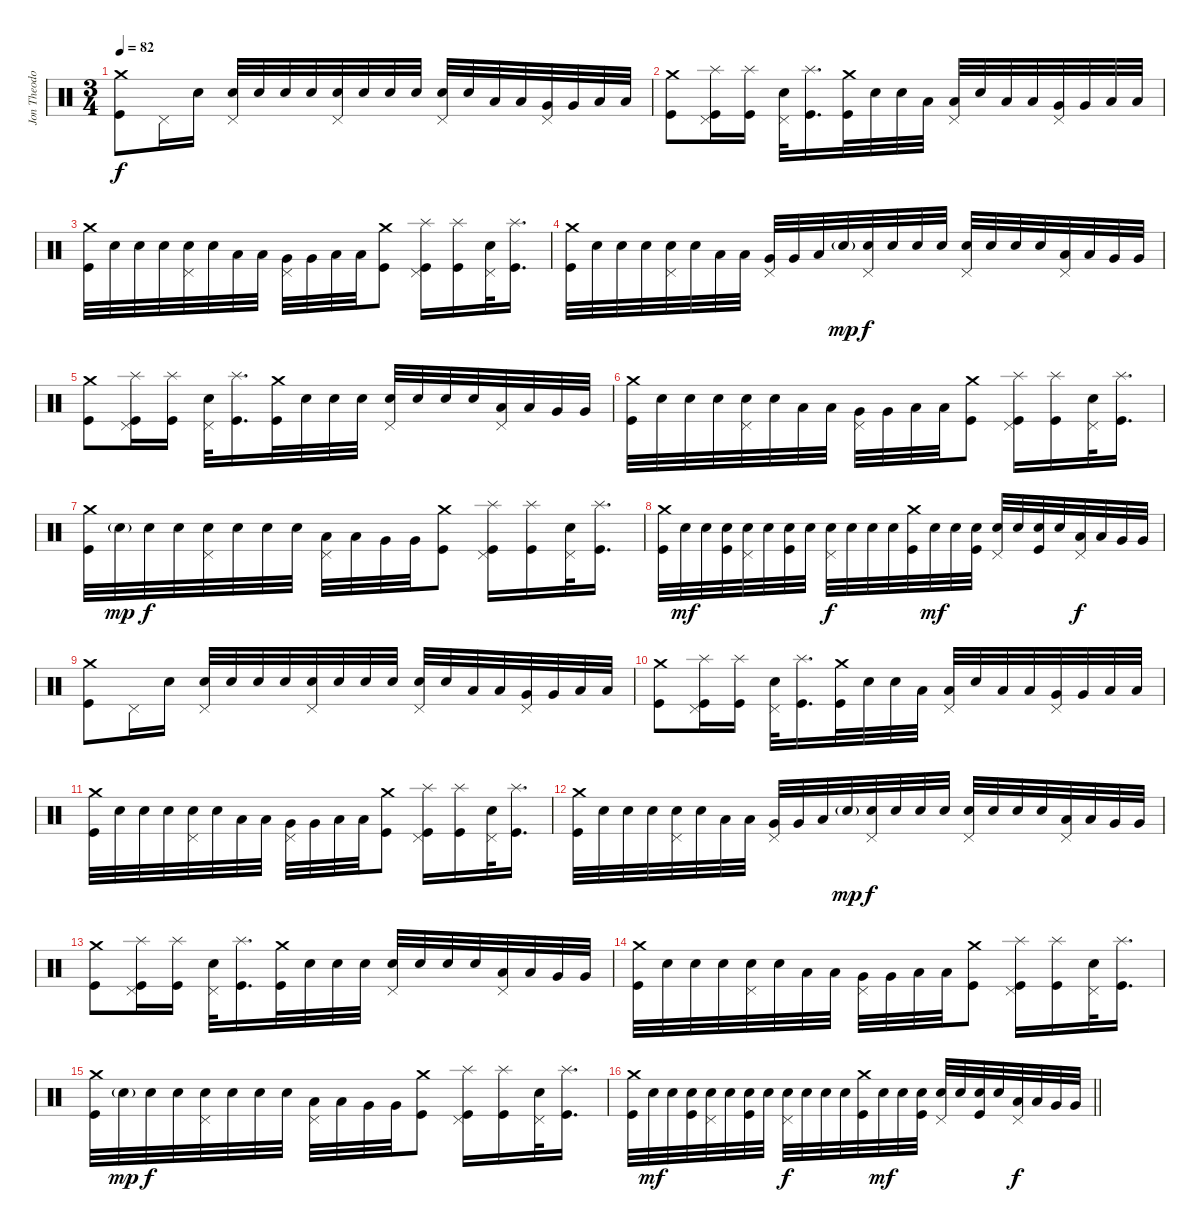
\track ("Jon Theodore" "Jon Theodo") {instrument percussion}
\staff {score}
\articulation defaults
\ts (3 4)
\tempo 82
\clef neutral
\ks c
("Crash medium (hit)" "Kick (hit)").8{dy f} "Pedal Hi-Hat (hit)".16 "Snare (hit) 2".16 ("Pedal Hi-Hat (hit)" "Snare (hit) 2").32 "Snare (hit) 2".32 "Snare (hit) 2".32 "Snare (hit) 2".32 ("Pedal Hi-Hat (hit)" "Snare (hit) 2").32 "Snare (hit) 2".32 "Snare (hit) 2".32 "Snare (hit) 2".32 ("Pedal Hi-Hat (hit)" "Snare (hit) 2").32 "Snare (hit) 2".32 "Low Tom (hit)".32 "Low Tom (hit)".32 ("Pedal Hi-Hat (hit)" "Very Low Tom (hit)").32 "Very Low Tom (hit)".32 "Low Floor Tom (hit)".32 "Low Floor Tom (hit)".32 |
("Crash medium (hit)" "Kick (hit)").8 ("Splash (hit)" "Pedal Hi-Hat (hit)" "Kick (hit)").16 ("Splash (hit)" "Kick (hit)").16 ("Pedal Hi-Hat (hit)" "Snare (hit) 2").32 ("Splash (hit)" "Kick (hit)").16{d} ("Crash medium (hit)" "Kick (hit)").32 "Snare (hit) 2".32 "Snare (hit) 2".32 "Low Tom (hit)".32 ("Pedal Hi-Hat (hit)" "Low Tom (hit)").32 "Snare (hit) 2".32 "Low Tom (hit)".32 "Low Tom (hit)".32 ("Pedal Hi-Hat (hit)" "Very Low Tom (hit)").32 "Very Low Tom (hit)".32 "Low Floor Tom (hit)".32 "Low Floor Tom (hit)".32 |
("Crash medium (hit)" "Kick (hit)").32 "Snare (hit) 2".32 "Snare (hit) 2".32 "Snare (hit) 2".32 ("Pedal Hi-Hat (hit)" "Snare (hit) 2").32 "Snare (hit) 2".32 "Low Tom (hit)".32 "Low Tom (hit)".32 ("Pedal Hi-Hat (hit)" "Very Low Tom (hit)").32 "Very Low Tom (hit)".32 "Low Floor Tom (hit)".32 "Low Floor Tom (hit)".32 ("Crash medium (hit)" "Kick (hit)").8 ("Splash (hit)" "Pedal Hi-Hat (hit)" "Kick (hit)").16 ("Splash (hit)" "Kick (hit)").16 ("Pedal Hi-Hat (hit)" "Snare (hit) 2").32 ("Splash (hit)" "Kick (hit)").16{d} |
("Crash medium (hit)" "Kick (hit)").32 "Snare (hit) 2".32 "Snare (hit) 2".32 "Snare (hit) 2".32 ("Pedal Hi-Hat (hit)" "Snare (hit) 2").32 "Snare (hit) 2".32 "Low Tom (hit)".32 "Low Tom (hit)".32 ("Pedal Hi-Hat (hit)" "Very Low Tom (hit)").32 "Very Low Tom (hit)".32 "Low Floor Tom (hit)".32 "Snare (hit) 2"{g}.32{dy mp} ("Pedal Hi-Hat (hit)" "Snare (hit) 2").32{dy f} "Snare (hit) 2".32 "Snare (hit) 2".32 "Snare (hit) 2".32 ("Pedal Hi-Hat (hit)" "Snare (hit) 2").32 "Snare (hit) 2".32 "Snare (hit) 2".32 "Snare (hit) 2".32 ("Pedal Hi-Hat (hit)" "Low Tom (hit)").32 "Low Tom (hit)".32 "Very Low Tom (hit)".32 "Very Low Tom (hit)".32 |
("Crash medium (hit)" "Kick (hit)").8 ("Splash (hit)" "Pedal Hi-Hat (hit)" "Kick (hit)").16 ("Splash (hit)" "Kick (hit)").16 ("Pedal Hi-Hat (hit)" "Snare (hit) 2").32 ("Splash (hit)" "Kick (hit)").16{d} ("Crash medium (hit)" "Kick (hit)").32 "Snare (hit) 2".32 "Snare (hit) 2".32 "Snare (hit) 2".32 ("Pedal Hi-Hat (hit)" "Snare (hit) 2").32 "Snare (hit) 2".32 "Snare (hit) 2".32 "Snare (hit) 2".32 ("Pedal Hi-Hat (hit)" "Low Tom (hit)").32 "Low Tom (hit)".32 "Very Low Tom (hit)".32 "Very Low Tom (hit)".32 |
("Crash medium (hit)" "Kick (hit)").32 "Snare (hit) 2".32 "Snare (hit) 2".32 "Snare (hit) 2".32 ("Pedal Hi-Hat (hit)" "Snare (hit) 2").32 "Snare (hit) 2".32 "Low Tom (hit)".32 "Low Tom (hit)".32 ("Pedal Hi-Hat (hit)" "Very Low Tom (hit)").32 "Very Low Tom (hit)".32 "Low Floor Tom (hit)".32 "Low Floor Tom (hit)".32 ("Crash medium (hit)" "Kick (hit)").8 ("Splash (hit)" "Pedal Hi-Hat (hit)" "Kick (hit)").16 ("Splash (hit)" "Kick (hit)").16 ("Pedal Hi-Hat (hit)" "Snare (hit) 2").32 ("Splash (hit)" "Kick (hit)").16{d} |
("Crash medium (hit)" "Kick (hit)").32 "Snare (hit) 2"{g}.32{dy mp} "Snare (hit) 2".32{dy f} "Snare (hit) 2".32 ("Pedal Hi-Hat (hit)" "Snare (hit) 2").32 "Snare (hit) 2".32 "Snare (hit) 2".32 "Snare (hit) 2".32 ("Pedal Hi-Hat (hit)" "Low Tom (hit)").32 "Low Tom (hit)".32 "Very Low Tom (hit)".32 "Very Low Tom (hit)".32 ("Crash medium (hit)" "Kick (hit)").8 ("Splash (hit)" "Pedal Hi-Hat (hit)" "Kick (hit)").16 ("Splash (hit)" "Kick (hit)").16 ("Pedal Hi-Hat (hit)" "Snare (hit) 2").32 ("Splash (hit)" "Kick (hit)").16{d} |
("Crash medium (hit)" "Kick (hit)").32 "Snare (hit) 2".32{dy mf} "Snare (hit) 2".32 ("Snare (hit) 2" "Kick (hit)").32 ("Pedal Hi-Hat (hit)" "Snare (hit) 2").32 "Snare (hit) 2".32 ("Snare (hit) 2" "Kick (hit)").32 "Snare (hit) 2".32 ("Pedal Hi-Hat (hit)" "Snare (hit) 2").32{dy f} "Snare (hit) 2".32 "Snare (hit) 2".32 "Snare (hit) 2".32 ("Crash medium (hit)" "Kick (hit)").32 "Snare (hit) 2".32{dy mf} "Snare (hit) 2".32 ("Snare (hit) 2" "Kick (hit)").32 ("Pedal Hi-Hat (hit)" "Snare (hit) 2").32 "Snare (hit) 2".32 ("Snare (hit) 2" "Kick (hit)").32 "Snare (hit) 2".32 ("Pedal Hi-Hat (hit)" "Low Tom (hit)").32{dy f} "Low Tom (hit)".32 "Very Low Tom (hit)".32 "Very Low Tom (hit)".32 |
("Crash medium (hit)" "Kick (hit)").8 "Pedal Hi-Hat (hit)".16 "Snare (hit) 2".16 ("Pedal Hi-Hat (hit)" "Snare (hit) 2").32 "Snare (hit) 2".32 "Snare (hit) 2".32 "Snare (hit) 2".32 ("Pedal Hi-Hat (hit)" "Snare (hit) 2").32 "Snare (hit) 2".32 "Snare (hit) 2".32 "Snare (hit) 2".32 ("Pedal Hi-Hat (hit)" "Snare (hit) 2").32 "Snare (hit) 2".32 "Low Tom (hit)".32 "Low Tom (hit)".32 ("Pedal Hi-Hat (hit)" "Very Low Tom (hit)").32 "Very Low Tom (hit)".32 "Low Floor Tom (hit)".32 "Low Floor Tom (hit)".32 |
("Crash medium (hit)" "Kick (hit)").8 ("Splash (hit)" "Pedal Hi-Hat (hit)" "Kick (hit)").16 ("Splash (hit)" "Kick (hit)").16 ("Pedal Hi-Hat (hit)" "Snare (hit) 2").32 ("Splash (hit)" "Kick (hit)").16{d} ("Crash medium (hit)" "Kick (hit)").32 "Snare (hit) 2".32 "Snare (hit) 2".32 "Low Tom (hit)".32 ("Pedal Hi-Hat (hit)" "Low Tom (hit)").32 "Snare (hit) 2".32 "Low Tom (hit)".32 "Low Tom (hit)".32 ("Pedal Hi-Hat (hit)" "Very Low Tom (hit)").32 "Very Low Tom (hit)".32 "Low Floor Tom (hit)".32 "Low Floor Tom (hit)".32 |
("Crash medium (hit)" "Kick (hit)").32 "Snare (hit) 2".32 "Snare (hit) 2".32 "Snare (hit) 2".32 ("Pedal Hi-Hat (hit)" "Snare (hit) 2").32 "Snare (hit) 2".32 "Low Tom (hit)".32 "Low Tom (hit)".32 ("Pedal Hi-Hat (hit)" "Very Low Tom (hit)").32 "Very Low Tom (hit)".32 "Low Floor Tom (hit)".32 "Low Floor Tom (hit)".32 ("Crash medium (hit)" "Kick (hit)").8 ("Splash (hit)" "Pedal Hi-Hat (hit)" "Kick (hit)").16 ("Splash (hit)" "Kick (hit)").16 ("Pedal Hi-Hat (hit)" "Snare (hit) 2").32 ("Splash (hit)" "Kick (hit)").16{d} |
("Crash medium (hit)" "Kick (hit)").32 "Snare (hit) 2".32 "Snare (hit) 2".32 "Snare (hit) 2".32 ("Pedal Hi-Hat (hit)" "Snare (hit) 2").32 "Snare (hit) 2".32 "Low Tom (hit)".32 "Low Tom (hit)".32 ("Pedal Hi-Hat (hit)" "Very Low Tom (hit)").32 "Very Low Tom (hit)".32 "Low Floor Tom (hit)".32 "Snare (hit) 2"{g}.32{dy mp} ("Pedal Hi-Hat (hit)" "Snare (hit) 2").32{dy f} "Snare (hit) 2".32 "Snare (hit) 2".32 "Snare (hit) 2".32 ("Pedal Hi-Hat (hit)" "Snare (hit) 2").32 "Snare (hit) 2".32 "Snare (hit) 2".32 "Snare (hit) 2".32 ("Pedal Hi-Hat (hit)" "Low Tom (hit)").32 "Low Tom (hit)".32 "Very Low Tom (hit)".32 "Very Low Tom (hit)".32 |
("Crash medium (hit)" "Kick (hit)").8 ("Splash (hit)" "Pedal Hi-Hat (hit)" "Kick (hit)").16 ("Splash (hit)" "Kick (hit)").16 ("Pedal Hi-Hat (hit)" "Snare (hit) 2").32 ("Splash (hit)" "Kick (hit)").16{d} ("Crash medium (hit)" "Kick (hit)").32 "Snare (hit) 2".32 "Snare (hit) 2".32 "Snare (hit) 2".32 ("Pedal Hi-Hat (hit)" "Snare (hit) 2").32 "Snare (hit) 2".32 "Snare (hit) 2".32 "Snare (hit) 2".32 ("Pedal Hi-Hat (hit)" "Low Tom (hit)").32 "Low Tom (hit)".32 "Very Low Tom (hit)".32 "Very Low Tom (hit)".32 |
("Crash medium (hit)" "Kick (hit)").32 "Snare (hit) 2".32 "Snare (hit) 2".32 "Snare (hit) 2".32 ("Pedal Hi-Hat (hit)" "Snare (hit) 2").32 "Snare (hit) 2".32 "Low Tom (hit)".32 "Low Tom (hit)".32 ("Pedal Hi-Hat (hit)" "Very Low Tom (hit)").32 "Very Low Tom (hit)".32 "Low Floor Tom (hit)".32 "Low Floor Tom (hit)".32 ("Crash medium (hit)" "Kick (hit)").8 ("Splash (hit)" "Pedal Hi-Hat (hit)" "Kick (hit)").16 ("Splash (hit)" "Kick (hit)").16 ("Pedal Hi-Hat (hit)" "Snare (hit) 2").32 ("Splash (hit)" "Kick (hit)").16{d} |
("Crash medium (hit)" "Kick (hit)").32 "Snare (hit) 2"{g}.32{dy mp} "Snare (hit) 2".32{dy f} "Snare (hit) 2".32 ("Pedal Hi-Hat (hit)" "Snare (hit) 2").32 "Snare (hit) 2".32 "Snare (hit) 2".32 "Snare (hit) 2".32 ("Pedal Hi-Hat (hit)" "Low Tom (hit)").32 "Low Tom (hit)".32 "Very Low Tom (hit)".32 "Very Low Tom (hit)".32 ("Crash medium (hit)" "Kick (hit)").8 ("Splash (hit)" "Pedal Hi-Hat (hit)" "Kick (hit)").16 ("Splash (hit)" "Kick (hit)").16 ("Pedal Hi-Hat (hit)" "Snare (hit) 2").32 ("Splash (hit)" "Kick (hit)").16{d} |
\barLineRight lightlight
("Crash medium (hit)" "Kick (hit)").32 "Snare (hit) 2".32{dy mf} "Snare (hit) 2".32 ("Snare (hit) 2" "Kick (hit)").32 ("Pedal Hi-Hat (hit)" "Snare (hit) 2").32 "Snare (hit) 2".32 ("Snare (hit) 2" "Kick (hit)").32 "Snare (hit) 2".32 ("Pedal Hi-Hat (hit)" "Snare (hit) 2").32{dy f} "Snare (hit) 2".32 "Snare (hit) 2".32 "Snare (hit) 2".32 ("Crash medium (hit)" "Kick (hit)").32 "Snare (hit) 2".32{dy mf} "Snare (hit) 2".32 ("Snare (hit) 2" "Kick (hit)").32 ("Pedal Hi-Hat (hit)" "Snare (hit) 2").32 "Snare (hit) 2".32 ("Snare (hit) 2" "Kick (hit)").32 "Snare (hit) 2".32 ("Pedal Hi-Hat (hit)" "Low Tom (hit)").32{dy f} "Low Tom (hit)".32 "Very Low Tom (hit)".32 "Very Low Tom (hit)".32
